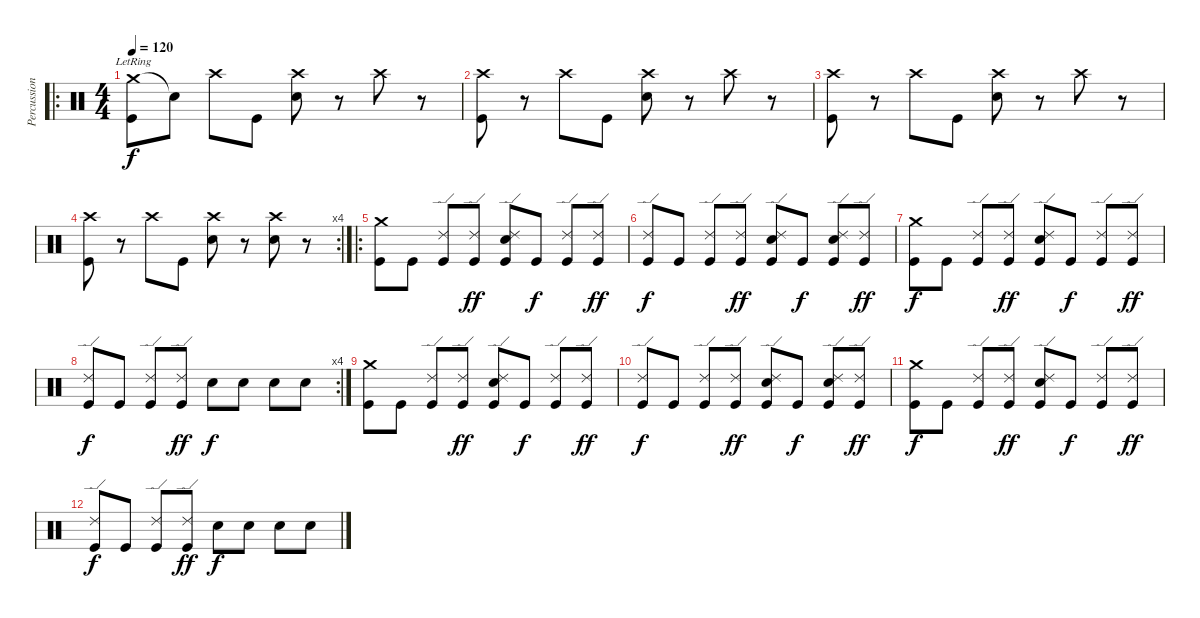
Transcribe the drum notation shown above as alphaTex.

\track ("Percussions" "Percussion") {instrument percussion}
\staff {score}
\articulation defaults
\ro
\ts (4 4)
\tempo 120
\clef neutral
\ks c
("Crash medium (hit)"{lr} "Kick (hit)").8{dy f} "Snare (hit)"{t}.8 "Crash high (hit)".8 "Kick (hit)".8 ("Crash high (hit)" "Electric Snare (hit)").8 r.8 "Crash high (hit)".8 r.8 |
("Crash high (hit)" "Kick (hit)").8 r.8 "Crash high (hit)".8 "Kick (hit)".8 ("Crash high (hit)" "Electric Snare (hit)").8 r.8 "Crash high (hit)".8 r.8 |
("Crash high (hit)" "Kick (hit)").8 r.8 "Crash high (hit)".8 "Kick (hit)".8 ("Crash high (hit)" "Electric Snare (hit)").8 r.8 "Crash high (hit)".8 r.8 |
\rc 4
("Crash high (hit)" "Kick (hit)").8 r.8 "Crash high (hit)".8 "Kick (hit)".8 ("Crash high (hit)" "Electric Snare (hit)").8 r.8 ("Crash high (hit)" "Electric Snare (hit)").8 r.8 |
\ro
("Crash medium (hit)" "Kick (hit)").8 "Kick (hit)".8 ("Ride (edge) 2" "Kick (hit)").8 ("Ride (edge) 2" "Kick (hit)").8{dy ff} ("Ride (edge) 2" "Electric Snare (hit)" "Kick (hit)").8 "Kick (hit)".8{dy f} ("Ride (edge) 2" "Kick (hit)").8 ("Ride (edge) 2" "Kick (hit)").8{dy ff} |
("Ride (edge) 2" "Kick (hit)").8{dy f} "Kick (hit)".8 ("Ride (edge) 2" "Kick (hit)").8 ("Ride (edge) 2" "Kick (hit)").8{dy ff} ("Ride (edge) 2" "Electric Snare (hit)" "Kick (hit)").8 "Kick (hit)".8{dy f} ("Ride (edge) 2" "Electric Snare (hit)" "Kick (hit)").8 ("Ride (edge) 2" "Kick (hit)").8{dy ff} |
("Crash medium (hit)" "Kick (hit)").8{dy f} "Kick (hit)".8 ("Ride (edge) 2" "Kick (hit)").8 ("Ride (edge) 2" "Kick (hit)").8{dy ff} ("Ride (edge) 2" "Electric Snare (hit)" "Kick (hit)").8 "Kick (hit)".8{dy f} ("Ride (edge) 2" "Kick (hit)").8 ("Ride (edge) 2" "Kick (hit)").8{dy ff} |
\rc 4
("Ride (edge) 2" "Kick (hit)").8{dy f} "Kick (hit)".8 ("Ride (edge) 2" "Kick (hit)").8 ("Ride (edge) 2" "Kick (hit)").8{dy ff} "Electric Snare (hit)".8{dy f} "Electric Snare (hit)".8 "Electric Snare (hit)".8 "Electric Snare (hit)".8 |
("Crash medium (hit)" "Kick (hit)").8 "Kick (hit)".8 ("Ride (edge) 2" "Kick (hit)").8 ("Ride (edge) 2" "Kick (hit)").8{dy ff} ("Ride (edge) 2" "Electric Snare (hit)" "Kick (hit)").8 "Kick (hit)".8{dy f} ("Ride (edge) 2" "Kick (hit)").8 ("Ride (edge) 2" "Kick (hit)").8{dy ff} |
("Ride (edge) 2" "Kick (hit)").8{dy f} "Kick (hit)".8 ("Ride (edge) 2" "Kick (hit)").8 ("Ride (edge) 2" "Kick (hit)").8{dy ff} ("Ride (edge) 2" "Electric Snare (hit)" "Kick (hit)").8 "Kick (hit)".8{dy f} ("Ride (edge) 2" "Electric Snare (hit)" "Kick (hit)").8 ("Ride (edge) 2" "Kick (hit)").8{dy ff} |
("Crash medium (hit)" "Kick (hit)").8{dy f} "Kick (hit)".8 ("Ride (edge) 2" "Kick (hit)").8 ("Ride (edge) 2" "Kick (hit)").8{dy ff} ("Ride (edge) 2" "Electric Snare (hit)" "Kick (hit)").8 "Kick (hit)".8{dy f} ("Ride (edge) 2" "Kick (hit)").8 ("Ride (edge) 2" "Kick (hit)").8{dy ff} |
("Ride (edge) 2" "Kick (hit)").8{dy f} "Kick (hit)".8 ("Ride (edge) 2" "Kick (hit)").8 ("Ride (edge) 2" "Kick (hit)").8{dy ff} "Electric Snare (hit)".8{dy f} "Electric Snare (hit)".8 "Electric Snare (hit)".8 "Electric Snare (hit)".8
